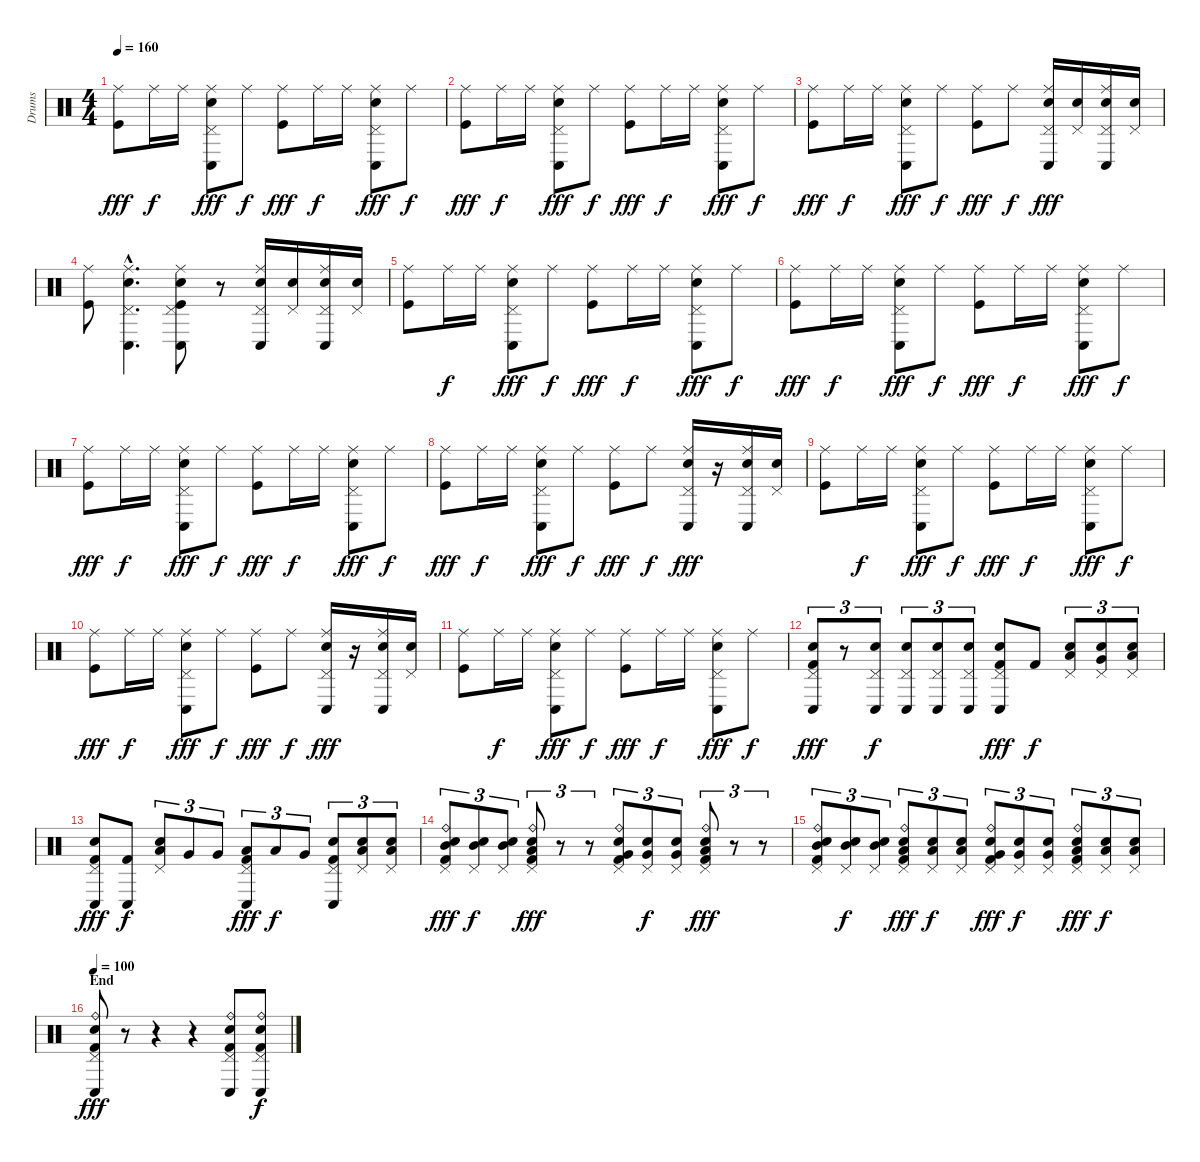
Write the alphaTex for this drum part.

\track ("Drums" "Drums") {instrument percussion}
\staff {score}
\articulation defaults
\ts (4 4)
\tempo 160
\clef neutral
\ks c
("Ride (middle)" "Kick (hit)").8{dy fff} "Ride (middle)".16{dy f} "Ride (middle)".16 ("Ride (middle)" "Pedal Hi-Hat (hit)" "Conga low (hit)" "Electric Snare (hit)").8{dy fff} "Ride (middle)".8{dy f} ("Ride (middle)" "Kick (hit)").8{dy fff} "Ride (middle)".16{dy f} "Ride (middle)".16 ("Ride (middle)" "Pedal Hi-Hat (hit)" "Conga low (hit)" "Electric Snare (hit)").8{dy fff} "Ride (middle)".8{dy f} |
("Ride (middle)" "Kick (hit)").8{dy fff} "Ride (middle)".16{dy f} "Ride (middle)".16 ("Ride (middle)" "Pedal Hi-Hat (hit)" "Conga low (hit)" "Electric Snare (hit)").8{dy fff} "Ride (middle)".8{dy f} ("Ride (middle)" "Kick (hit)").8{dy fff} "Ride (middle)".16{dy f} "Ride (middle)".16 ("Ride (middle)" "Pedal Hi-Hat (hit)" "Conga low (hit)" "Electric Snare (hit)").8{dy fff} "Ride (middle)".8{dy f} |
("Ride (middle)" "Kick (hit)").8{dy fff} "Ride (middle)".16{dy f} "Ride (middle)".16 ("Ride (middle)" "Pedal Hi-Hat (hit)" "Conga low (hit)" "Electric Snare (hit)").8{dy fff} "Ride (middle)".8{dy f} ("Ride (middle)" "Kick (hit)").8{dy fff} "Ride (middle)".8{dy f} ("Ride (middle)" "Pedal Hi-Hat (hit)" "Conga low (hit)" "Electric Snare (hit)").16{dy fff} ("Pedal Hi-Hat (hit)" "Electric Snare (hit)").16 ("Ride (middle)" "Pedal Hi-Hat (hit)" "Conga low (hit)" "Electric Snare (hit)").16 ("Pedal Hi-Hat (hit)" "Electric Snare (hit)").16 |
("Ride (middle)" "Kick (hit)").8 ("Ride (middle)"{hac} "Pedal Hi-Hat (hit)"{hac} "Conga low (hit)"{hac} "Electric Snare (hit)"{hac}).4{d} ("Ride (middle)" "Pedal Hi-Hat (hit)" "Conga low (hit)" "Electric Snare (hit)" "Kick (hit)").8 r.8 ("Ride (middle)" "Pedal Hi-Hat (hit)" "Conga low (hit)" "Electric Snare (hit)").16 ("Pedal Hi-Hat (hit)" "Electric Snare (hit)").16 ("Ride (middle)" "Pedal Hi-Hat (hit)" "Conga low (hit)" "Electric Snare (hit)").16 ("Pedal Hi-Hat (hit)" "Electric Snare (hit)").16 |
("Ride (middle)" "Kick (hit)").8 "Ride (middle)".16{dy f} "Ride (middle)".16 ("Ride (middle)" "Pedal Hi-Hat (hit)" "Conga low (hit)" "Electric Snare (hit)").8{dy fff} "Ride (middle)".8{dy f} ("Ride (middle)" "Kick (hit)").8{dy fff} "Ride (middle)".16{dy f} "Ride (middle)".16 ("Ride (middle)" "Pedal Hi-Hat (hit)" "Conga low (hit)" "Electric Snare (hit)").8{dy fff} "Ride (middle)".8{dy f} |
("Ride (middle)" "Kick (hit)").8{dy fff} "Ride (middle)".16{dy f} "Ride (middle)".16 ("Ride (middle)" "Pedal Hi-Hat (hit)" "Conga low (hit)" "Electric Snare (hit)").8{dy fff} "Ride (middle)".8{dy f} ("Ride (middle)" "Kick (hit)").8{dy fff} "Ride (middle)".16{dy f} "Ride (middle)".16 ("Ride (middle)" "Pedal Hi-Hat (hit)" "Conga low (hit)" "Electric Snare (hit)").8{dy fff} "Ride (middle)".8{dy f} |
("Ride (middle)" "Kick (hit)").8{dy fff} "Ride (middle)".16{dy f} "Ride (middle)".16 ("Ride (middle)" "Pedal Hi-Hat (hit)" "Conga low (hit)" "Electric Snare (hit)").8{dy fff} "Ride (middle)".8{dy f} ("Ride (middle)" "Kick (hit)").8{dy fff} "Ride (middle)".16{dy f} "Ride (middle)".16 ("Ride (middle)" "Pedal Hi-Hat (hit)" "Conga low (hit)" "Electric Snare (hit)").8{dy fff} "Ride (middle)".8{dy f} |
("Ride (middle)" "Kick (hit)").8{dy fff} "Ride (middle)".16{dy f} "Ride (middle)".16 ("Ride (middle)" "Pedal Hi-Hat (hit)" "Conga low (hit)" "Electric Snare (hit)").8{dy fff} "Ride (middle)".8{dy f} ("Ride (middle)" "Kick (hit)").8{dy fff} "Ride (middle)".8{dy f} ("Ride (middle)" "Pedal Hi-Hat (hit)" "Conga low (hit)" "Electric Snare (hit)").16{dy fff} r.16 ("Ride (middle)" "Pedal Hi-Hat (hit)" "Conga low (hit)" "Electric Snare (hit)").16 ("Pedal Hi-Hat (hit)" "Electric Snare (hit)").16 |
("Ride (middle)" "Kick (hit)").8 "Ride (middle)".16{dy f} "Ride (middle)".16 ("Ride (middle)" "Pedal Hi-Hat (hit)" "Conga low (hit)" "Electric Snare (hit)").8{dy fff} "Ride (middle)".8{dy f} ("Ride (middle)" "Kick (hit)").8{dy fff} "Ride (middle)".16{dy f} "Ride (middle)".16 ("Ride (middle)" "Pedal Hi-Hat (hit)" "Conga low (hit)" "Electric Snare (hit)").8{dy fff} "Ride (middle)".8{dy f} |
("Ride (middle)" "Kick (hit)").8{dy fff} "Ride (middle)".16{dy f} "Ride (middle)".16 ("Ride (middle)" "Pedal Hi-Hat (hit)" "Conga low (hit)" "Electric Snare (hit)").8{dy fff} "Ride (middle)".8{dy f} ("Ride (middle)" "Kick (hit)").8{dy fff} "Ride (middle)".8{dy f} ("Ride (middle)" "Pedal Hi-Hat (hit)" "Conga low (hit)" "Electric Snare (hit)").16{dy fff} r.16 ("Ride (middle)" "Pedal Hi-Hat (hit)" "Conga low (hit)" "Electric Snare (hit)").16 ("Pedal Hi-Hat (hit)" "Electric Snare (hit)").16 |
("Ride (middle)" "Kick (hit)").8 "Ride (middle)".16{dy f} "Ride (middle)".16 ("Ride (middle)" "Pedal Hi-Hat (hit)" "Conga low (hit)" "Electric Snare (hit)").8{dy fff} "Ride (middle)".8{dy f} ("Ride (middle)" "Kick (hit)").8{dy fff} "Ride (middle)".16{dy f} "Ride (middle)".16 ("Ride (middle)" "Pedal Hi-Hat (hit)" "Conga low (hit)" "Electric Snare (hit)").8{dy fff} "Ride (middle)".8{dy f} |
("Pedal Hi-Hat (hit)" "Conga low (hit)" "Electric Snare (hit)" "Kick (hit) 2").8{tu (3 2) dy fff} r.8{tu (3 2)} ("Pedal Hi-Hat (hit)" "Conga low (hit)" "Electric Snare (hit)").8{tu (3 2) dy f} ("Pedal Hi-Hat (hit)" "Conga low (hit)" "Electric Snare (hit)").8{tu (3 2)} ("Pedal Hi-Hat (hit)" "Conga low (hit)" "Electric Snare (hit)").8{tu (3 2)} ("Pedal Hi-Hat (hit)" "Conga low (hit)" "Electric Snare (hit)").8{tu (3 2)} ("Pedal Hi-Hat (hit)" "Conga low (hit)" "Electric Snare (hit)" "Kick (hit) 2").8{dy fff} "Kick (hit) 2".8{dy f} ("Pedal Hi-Hat (hit)" "Low Tom (hit)" "Electric Snare (hit)").8{tu (3 2)} ("Pedal Hi-Hat (hit)" "Very Low Tom (hit)" "Electric Snare (hit)").8{tu (3 2)} ("Pedal Hi-Hat (hit)" "Low Floor Tom (hit)" "Electric Snare (hit)").8{tu (3 2)} |
("Pedal Hi-Hat (hit)" "Conga low (hit)" "Electric Snare (hit)" "Kick (hit) 2").8{dy fff} ("Conga low (hit)" "Kick (hit) 2").8{dy f} ("Pedal Hi-Hat (hit)" "Low Floor Tom (hit)" "Electric Snare (hit)").8{tu (3 2)} "Very Low Tom (hit)".8{tu (3 2)} "Very Low Tom (hit)".8{tu (3 2)} ("Pedal Hi-Hat (hit)" "Conga low (hit)" "Low Floor Tom (hit)" "Kick (hit) 2").8{tu (3 2) dy fff} "Low Tom (hit)".8{tu (3 2) dy f} "Very Low Tom (hit)".8{tu (3 2)} ("Pedal Hi-Hat (hit)" "Conga low (hit)" "Electric Snare (hit)" "Kick (hit) 2").8{tu (3 2)} ("Pedal Hi-Hat (hit)" "Low Floor Tom (hit)" "Electric Snare (hit)").8{tu (3 2)} ("Pedal Hi-Hat (hit)" "Low Floor Tom (hit)" "Electric Snare (hit)").8{tu (3 2)} |
("Ride (bell)" "Pedal Hi-Hat (hit)" "Mid Tom (hit)" "Electric Snare (hit)" "Kick (hit) 2").8{tu (3 2) dy fff} ("Pedal Hi-Hat (hit)" "Mid Tom (hit)" "Electric Snare (hit)").8{tu (3 2) dy f} ("Pedal Hi-Hat (hit)" "Mid Tom (hit)" "Electric Snare (hit)").8{tu (3 2)} ("Ride (bell)" "Pedal Hi-Hat (hit)" "Low Tom (hit)" "Electric Snare (hit)" "Kick (hit) 2").8{tu (3 2) dy fff} r.8{tu (3 2)} r.8{tu (3 2)} ("Ride (bell)" "Pedal Hi-Hat (hit)" "Very Low Tom (hit)" "Electric Snare (hit)" "Kick (hit) 2").8{tu (3 2)} ("Pedal Hi-Hat (hit)" "Very Low Tom (hit)" "Electric Snare (hit)").8{tu (3 2) dy f} ("Pedal Hi-Hat (hit)" "Very Low Tom (hit)" "Electric Snare (hit)").8{tu (3 2)} ("Ride (bell)" "Pedal Hi-Hat (hit)" "Low Floor Tom (hit)" "Electric Snare (hit)" "Kick (hit) 2").8{tu (3 2) dy fff} r.8{tu (3 2)} r.8{tu (3 2)} |
("Ride (bell)" "Pedal Hi-Hat (hit)" "Mid Tom (hit)" "Electric Snare (hit)" "Kick (hit) 2").8{tu (3 2)} ("Pedal Hi-Hat (hit)" "Mid Tom (hit)" "Electric Snare (hit)").8{tu (3 2) dy f} ("Pedal Hi-Hat (hit)" "Mid Tom (hit)" "Electric Snare (hit)").8{tu (3 2)} ("Ride (bell)" "Pedal Hi-Hat (hit)" "Low Tom (hit)" "Electric Snare (hit)" "Kick (hit) 2").8{tu (3 2) dy fff} ("Pedal Hi-Hat (hit)" "Low Tom (hit)" "Electric Snare (hit)").8{tu (3 2) dy f} ("Pedal Hi-Hat (hit)" "Low Tom (hit)" "Electric Snare (hit)").8{tu (3 2)} ("Ride (bell)" "Pedal Hi-Hat (hit)" "Very Low Tom (hit)" "Electric Snare (hit)" "Kick (hit) 2").8{tu (3 2) dy fff} ("Pedal Hi-Hat (hit)" "Very Low Tom (hit)" "Electric Snare (hit)").8{tu (3 2) dy f} ("Pedal Hi-Hat (hit)" "Very Low Tom (hit)" "Electric Snare (hit)").8{tu (3 2)} ("Ride (bell)" "Pedal Hi-Hat (hit)" "Low Floor Tom (hit)" "Electric Snare (hit)" "Kick (hit) 2").8{tu (3 2) dy fff} ("Pedal Hi-Hat (hit)" "Low Floor Tom (hit)" "Electric Snare (hit)").8{tu (3 2) dy f} ("Pedal Hi-Hat (hit)" "Low Floor Tom (hit)" "Electric Snare (hit)").8{tu (3 2)} |
\section ("" "End")
\tempo 100
("Ride (bell)" "Pedal Hi-Hat (hit)" "Conga low (hit)" "Electric Snare (hit)" "Kick (hit) 2").8{dy fff} r.8 r.4 r.4 ("Ride (bell)" "Pedal Hi-Hat (hit)" "Conga low (hit)" "Electric Snare (hit)" "Kick (hit) 2").8 ("Ride (bell)" "Pedal Hi-Hat (hit)" "Conga low (hit)" "Electric Snare (hit)" "Kick (hit) 2").8{dy f}
